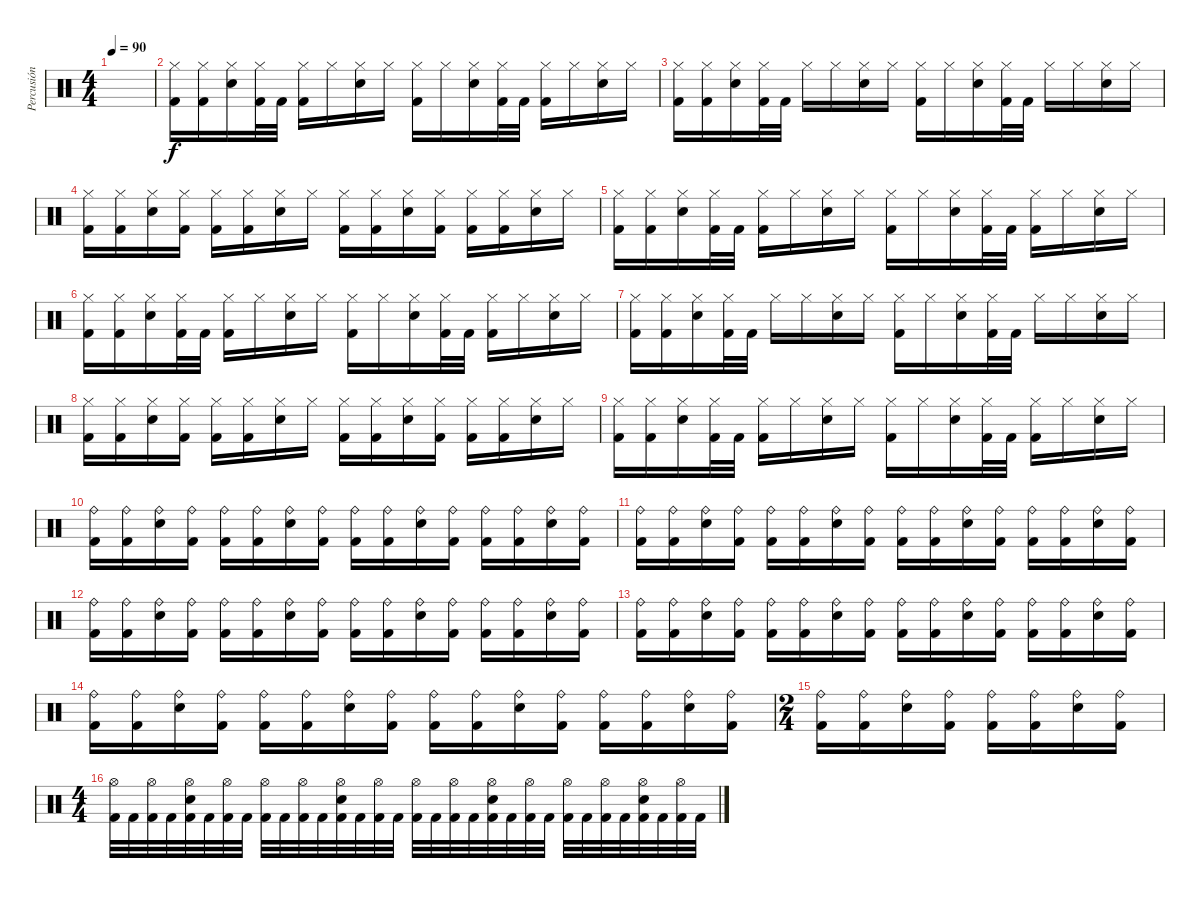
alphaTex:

\track ("Percusión" "Percusión") {instrument percussion}
\staff {score}
\articulation defaults
\ts (4 4)
\tempo 90
\clef neutral
\ks c
|
("Hi-Hat (closed)" "Kick (hit) 2").16 ("Hi-Hat (closed)" "Kick (hit) 2").16 ("Hi-Hat (closed)" "Electric Snare (hit)").16 ("Hi-Hat (closed)" "Kick (hit) 2").32 "Kick (hit) 2".32 ("Hi-Hat (closed)" "Kick (hit) 2").16 "Hi-Hat (closed)".16 ("Hi-Hat (closed)" "Electric Snare (hit)").16 "Hi-Hat (closed)".16 ("Hi-Hat (closed)" "Kick (hit) 2").16 "Hi-Hat (closed)".16 ("Hi-Hat (closed)" "Electric Snare (hit)").16 ("Hi-Hat (closed)" "Kick (hit) 2").32 "Kick (hit) 2".32 ("Hi-Hat (closed)" "Kick (hit) 2").16 "Hi-Hat (closed)".16 ("Hi-Hat (closed)" "Electric Snare (hit)").16 "Hi-Hat (closed)".16 |
("Hi-Hat (closed)" "Kick (hit) 2").16 ("Hi-Hat (closed)" "Kick (hit) 2").16 ("Hi-Hat (closed)" "Electric Snare (hit)").16 ("Hi-Hat (closed)" "Kick (hit) 2").32 "Kick (hit) 2".32 "Hi-Hat (closed)".16 "Hi-Hat (closed)".16 ("Hi-Hat (closed)" "Electric Snare (hit)").16 "Hi-Hat (closed)".16 ("Hi-Hat (closed)" "Kick (hit) 2").16 "Hi-Hat (closed)".16 ("Hi-Hat (closed)" "Electric Snare (hit)").16 ("Hi-Hat (closed)" "Kick (hit) 2").32 "Kick (hit) 2".32 "Hi-Hat (closed)".16 "Hi-Hat (closed)".16 ("Hi-Hat (closed)" "Electric Snare (hit)").16 "Hi-Hat (closed)".16 |
("Hi-Hat (closed)" "Kick (hit) 2").16 ("Hi-Hat (closed)" "Kick (hit) 2").16 ("Hi-Hat (closed)" "Electric Snare (hit)").16 ("Hi-Hat (closed)" "Kick (hit) 2").16 ("Hi-Hat (closed)" "Kick (hit) 2").16 ("Hi-Hat (closed)" "Kick (hit) 2").16 ("Hi-Hat (closed)" "Electric Snare (hit)").16 "Hi-Hat (closed)".16 ("Hi-Hat (closed)" "Kick (hit) 2").16 ("Hi-Hat (closed)" "Kick (hit) 2").16 ("Hi-Hat (closed)" "Electric Snare (hit)").16 ("Hi-Hat (closed)" "Kick (hit) 2").16 ("Hi-Hat (closed)" "Kick (hit) 2").16 ("Hi-Hat (closed)" "Kick (hit) 2").16 ("Hi-Hat (closed)" "Electric Snare (hit)").16 "Hi-Hat (closed)".16 |
("Hi-Hat (closed)" "Kick (hit) 2").16 ("Hi-Hat (closed)" "Kick (hit) 2").16 ("Hi-Hat (closed)" "Electric Snare (hit)").16 ("Hi-Hat (closed)" "Kick (hit) 2").32 "Kick (hit) 2".32 ("Hi-Hat (closed)" "Kick (hit) 2").16 "Hi-Hat (closed)".16 ("Hi-Hat (closed)" "Electric Snare (hit)").16 "Hi-Hat (closed)".16 ("Hi-Hat (closed)" "Kick (hit) 2").16 "Hi-Hat (closed)".16 ("Hi-Hat (closed)" "Electric Snare (hit)").16 ("Hi-Hat (closed)" "Kick (hit) 2").32 "Kick (hit) 2".32 ("Hi-Hat (closed)" "Kick (hit) 2").16 "Hi-Hat (closed)".16 ("Hi-Hat (closed)" "Electric Snare (hit)").16 "Hi-Hat (closed)".16 |
("Hi-Hat (closed)" "Kick (hit) 2").16 ("Hi-Hat (closed)" "Kick (hit) 2").16 ("Hi-Hat (closed)" "Electric Snare (hit)").16 ("Hi-Hat (closed)" "Kick (hit) 2").32 "Kick (hit) 2".32 ("Hi-Hat (closed)" "Kick (hit) 2").16 "Hi-Hat (closed)".16 ("Hi-Hat (closed)" "Electric Snare (hit)").16 "Hi-Hat (closed)".16 ("Hi-Hat (closed)" "Kick (hit) 2").16 "Hi-Hat (closed)".16 ("Hi-Hat (closed)" "Electric Snare (hit)").16 ("Hi-Hat (closed)" "Kick (hit) 2").32 "Kick (hit) 2".32 ("Hi-Hat (closed)" "Kick (hit) 2").16 "Hi-Hat (closed)".16 ("Hi-Hat (closed)" "Electric Snare (hit)").16 "Hi-Hat (closed)".16 |
("Hi-Hat (closed)" "Kick (hit) 2").16 ("Hi-Hat (closed)" "Kick (hit) 2").16 ("Hi-Hat (closed)" "Electric Snare (hit)").16 ("Hi-Hat (closed)" "Kick (hit) 2").32 "Kick (hit) 2".32 "Hi-Hat (closed)".16 "Hi-Hat (closed)".16 ("Hi-Hat (closed)" "Electric Snare (hit)").16 "Hi-Hat (closed)".16 ("Hi-Hat (closed)" "Kick (hit) 2").16 "Hi-Hat (closed)".16 ("Hi-Hat (closed)" "Electric Snare (hit)").16 ("Hi-Hat (closed)" "Kick (hit) 2").32 "Kick (hit) 2".32 "Hi-Hat (closed)".16 "Hi-Hat (closed)".16 ("Hi-Hat (closed)" "Electric Snare (hit)").16 "Hi-Hat (closed)".16 |
("Hi-Hat (closed)" "Kick (hit) 2").16 ("Hi-Hat (closed)" "Kick (hit) 2").16 ("Hi-Hat (closed)" "Electric Snare (hit)").16 ("Hi-Hat (closed)" "Kick (hit) 2").16 ("Hi-Hat (closed)" "Kick (hit) 2").16 ("Hi-Hat (closed)" "Kick (hit) 2").16 ("Hi-Hat (closed)" "Electric Snare (hit)").16 "Hi-Hat (closed)".16 ("Hi-Hat (closed)" "Kick (hit) 2").16 ("Hi-Hat (closed)" "Kick (hit) 2").16 ("Hi-Hat (closed)" "Electric Snare (hit)").16 ("Hi-Hat (closed)" "Kick (hit) 2").16 ("Hi-Hat (closed)" "Kick (hit) 2").16 ("Hi-Hat (closed)" "Kick (hit) 2").16 ("Hi-Hat (closed)" "Electric Snare (hit)").16 "Hi-Hat (closed)".16 |
("Hi-Hat (closed)" "Kick (hit) 2").16 ("Hi-Hat (closed)" "Kick (hit) 2").16 ("Hi-Hat (closed)" "Electric Snare (hit)").16 ("Hi-Hat (closed)" "Kick (hit) 2").32 "Kick (hit) 2".32 ("Hi-Hat (closed)" "Kick (hit) 2").16 "Hi-Hat (closed)".16 ("Hi-Hat (closed)" "Electric Snare (hit)").16 "Hi-Hat (closed)".16 ("Hi-Hat (closed)" "Kick (hit) 2").16 "Hi-Hat (closed)".16 ("Hi-Hat (closed)" "Electric Snare (hit)").16 ("Hi-Hat (closed)" "Kick (hit) 2").32 "Kick (hit) 2".32 ("Hi-Hat (closed)" "Kick (hit) 2").16 "Hi-Hat (closed)".16 ("Hi-Hat (closed)" "Electric Snare (hit)").16 "Hi-Hat (closed)".16 |
("Ride (bell)" "Kick (hit) 2").16 ("Ride (bell)" "Kick (hit) 2").16 ("Ride (bell)" "Electric Snare (hit)").16 ("Ride (bell)" "Kick (hit) 2").16 ("Ride (bell)" "Kick (hit) 2").16 ("Ride (bell)" "Kick (hit) 2").16 ("Ride (bell)" "Electric Snare (hit)").16 ("Ride (bell)" "Kick (hit) 2").16 ("Ride (bell)" "Kick (hit) 2").16 ("Ride (bell)" "Kick (hit) 2").16 ("Ride (bell)" "Electric Snare (hit)").16 ("Ride (bell)" "Kick (hit) 2").16 ("Ride (bell)" "Kick (hit) 2").16 ("Ride (bell)" "Kick (hit) 2").16 ("Ride (bell)" "Electric Snare (hit)").16 ("Ride (bell)" "Kick (hit) 2").16 |
("Ride (bell)" "Kick (hit) 2").16 ("Ride (bell)" "Kick (hit) 2").16 ("Ride (bell)" "Electric Snare (hit)").16 ("Ride (bell)" "Kick (hit) 2").16 ("Ride (bell)" "Kick (hit) 2").16 ("Ride (bell)" "Kick (hit) 2").16 ("Ride (bell)" "Electric Snare (hit)").16 ("Ride (bell)" "Kick (hit) 2").16 ("Ride (bell)" "Kick (hit) 2").16 ("Ride (bell)" "Kick (hit) 2").16 ("Ride (bell)" "Electric Snare (hit)").16 ("Ride (bell)" "Kick (hit) 2").16 ("Ride (bell)" "Kick (hit) 2").16 ("Ride (bell)" "Kick (hit) 2").16 ("Ride (bell)" "Electric Snare (hit)").16 ("Ride (bell)" "Kick (hit) 2").16 |
("Ride (bell)" "Kick (hit) 2").16 ("Ride (bell)" "Kick (hit) 2").16 ("Ride (bell)" "Electric Snare (hit)").16 ("Ride (bell)" "Kick (hit) 2").16 ("Ride (bell)" "Kick (hit) 2").16 ("Ride (bell)" "Kick (hit) 2").16 ("Ride (bell)" "Electric Snare (hit)").16 ("Ride (bell)" "Kick (hit) 2").16 ("Ride (bell)" "Kick (hit) 2").16 ("Ride (bell)" "Kick (hit) 2").16 ("Ride (bell)" "Electric Snare (hit)").16 ("Ride (bell)" "Kick (hit) 2").16 ("Ride (bell)" "Kick (hit) 2").16 ("Ride (bell)" "Kick (hit) 2").16 ("Ride (bell)" "Electric Snare (hit)").16 ("Ride (bell)" "Kick (hit) 2").16 |
("Ride (bell)" "Kick (hit) 2").16 ("Ride (bell)" "Kick (hit) 2").16 ("Ride (bell)" "Electric Snare (hit)").16 ("Ride (bell)" "Kick (hit) 2").16 ("Ride (bell)" "Kick (hit) 2").16 ("Ride (bell)" "Kick (hit) 2").16 ("Ride (bell)" "Electric Snare (hit)").16 ("Ride (bell)" "Kick (hit) 2").16 ("Ride (bell)" "Kick (hit) 2").16 ("Ride (bell)" "Kick (hit) 2").16 ("Ride (bell)" "Electric Snare (hit)").16 ("Ride (bell)" "Kick (hit) 2").16 ("Ride (bell)" "Kick (hit) 2").16 ("Ride (bell)" "Kick (hit) 2").16 ("Ride (bell)" "Electric Snare (hit)").16 ("Ride (bell)" "Kick (hit) 2").16 |
("Ride (bell)" "Kick (hit) 2").16 ("Ride (bell)" "Kick (hit) 2").16 ("Ride (bell)" "Electric Snare (hit)").16 ("Ride (bell)" "Kick (hit) 2").16 ("Ride (bell)" "Kick (hit) 2").16 ("Ride (bell)" "Kick (hit) 2").16 ("Ride (bell)" "Electric Snare (hit)").16 ("Ride (bell)" "Kick (hit) 2").16 ("Ride (bell)" "Kick (hit) 2").16 ("Ride (bell)" "Kick (hit) 2").16 ("Ride (bell)" "Electric Snare (hit)").16 ("Ride (bell)" "Kick (hit) 2").16 ("Ride (bell)" "Kick (hit) 2").16 ("Ride (bell)" "Kick (hit) 2").16 ("Ride (bell)" "Electric Snare (hit)").16 ("Ride (bell)" "Kick (hit) 2").16 |
\ts (2 4)
("Ride (bell)" "Kick (hit) 2").16 ("Ride (bell)" "Kick (hit) 2").16 ("Ride (bell)" "Electric Snare (hit)").16 ("Ride (bell)" "Kick (hit) 2").16 ("Ride (bell)" "Kick (hit) 2").16 ("Ride (bell)" "Kick (hit) 2").16 ("Ride (bell)" "Electric Snare (hit)").16 ("Ride (bell)" "Kick (hit) 2").16 |
\ts (4 4)
("Hi-Hat (open)" "Kick (hit) 2").32 "Kick (hit) 2".32 ("Hi-Hat (open)" "Kick (hit) 2").32 "Kick (hit) 2".32 ("Hi-Hat (open)" "Electric Snare (hit)" "Kick (hit) 2").32 "Kick (hit) 2".32 ("Hi-Hat (open)" "Kick (hit) 2").32 "Kick (hit) 2".32 ("Hi-Hat (open)" "Kick (hit) 2").32 "Kick (hit) 2".32 ("Hi-Hat (open)" "Kick (hit) 2").32 "Kick (hit) 2".32 ("Hi-Hat (open)" "Electric Snare (hit)" "Kick (hit) 2").32 "Kick (hit) 2".32 ("Hi-Hat (open)" "Kick (hit) 2").32 "Kick (hit) 2".32 ("Hi-Hat (open)" "Kick (hit) 2").32 "Kick (hit) 2".32 ("Hi-Hat (open)" "Kick (hit) 2").32 "Kick (hit) 2".32 ("Hi-Hat (open)" "Electric Snare (hit)" "Kick (hit) 2").32 "Kick (hit) 2".32 ("Hi-Hat (open)" "Kick (hit) 2").32 "Kick (hit) 2".32 ("Hi-Hat (open)" "Kick (hit) 2").32 "Kick (hit) 2".32 ("Hi-Hat (open)" "Kick (hit) 2").32 "Kick (hit) 2".32 ("Hi-Hat (open)" "Electric Snare (hit)" "Kick (hit) 2").32 "Kick (hit) 2".32 ("Hi-Hat (open)" "Kick (hit) 2").32 "Kick (hit) 2".32
